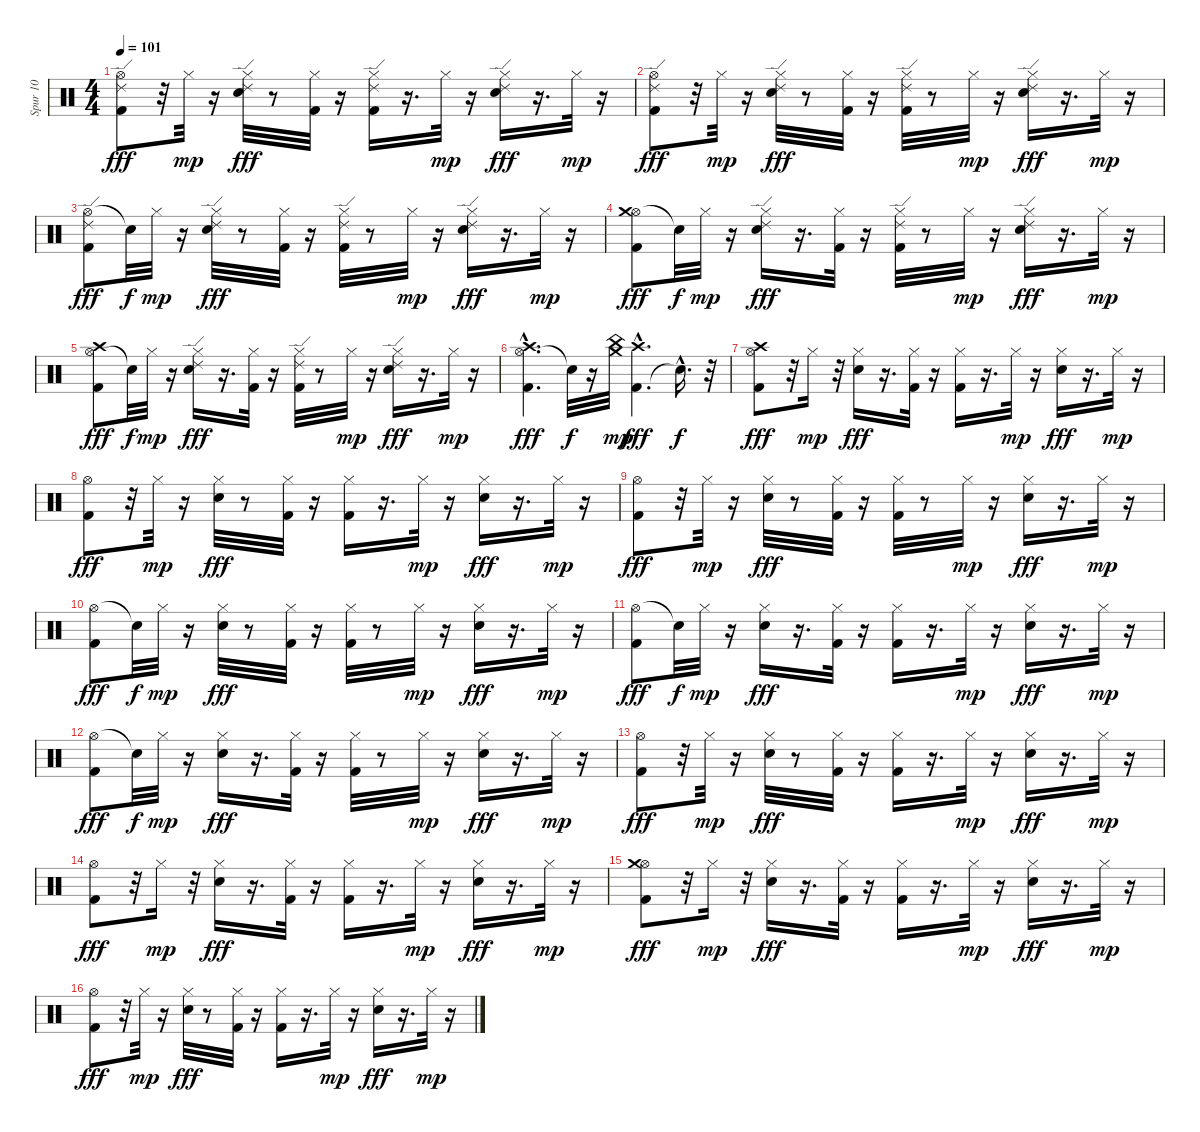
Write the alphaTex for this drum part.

\track ("Spur 10" "Spur 10") {instrument percussion}
\staff {score}
\articulation defaults
\ts (4 4)
\tempo 101
\clef neutral
\ks c
("Hi-Hat (open)" "Kick (hit) 2" "Ride (edge) 2").8{dy fff} r.32 "Hi-Hat (closed)".32{dy mp} r.16 ("Hi-Hat (closed)" "Snare (hit) 2" "Ride (edge) 2").32{dy fff} r.8 ("Hi-Hat (closed)" "Kick (hit) 2").32 r.16 ("Hi-Hat (closed)" "Kick (hit) 2" "Ride (edge) 2").16 r.16{d} "Hi-Hat (closed)".32{dy mp} r.16 ("Hi-Hat (closed)" "Snare (hit) 2" "Ride (edge) 2").16{dy fff} r.16{d} "Hi-Hat (closed)".32{dy mp} r.16 |
("Hi-Hat (open)" "Kick (hit) 2" "Ride (edge) 2").8{dy fff} r.32 "Hi-Hat (closed)".32{dy mp} r.16 ("Hi-Hat (closed)" "Snare (hit) 2" "Ride (edge) 2").32{dy fff} r.8 ("Hi-Hat (closed)" "Kick (hit) 2").32 r.16 ("Hi-Hat (closed)" "Kick (hit) 2" "Ride (edge) 2").32 r.8 "Hi-Hat (closed)".32{dy mp} r.16 ("Ride (edge) 2" "Hi-Hat (closed)" "Snare (hit) 2").16{dy fff} r.16{d} "Hi-Hat (closed)".32{dy mp} r.16 |
("Hi-Hat (open)" "Kick (hit) 2" "Ride (edge) 2").8{dy fff} "Snare (hit)"{t}.32{dy f} "Hi-Hat (closed)".32{dy mp} r.16 ("Ride (edge) 2" "Hi-Hat (closed)" "Snare (hit) 2").32{dy fff} r.8 ("Hi-Hat (closed)" "Kick (hit) 2").32 r.16 ("Hi-Hat (closed)" "Kick (hit) 2" "Ride (edge) 2").32 r.8 "Hi-Hat (closed)".32{dy mp} r.16 ("Hi-Hat (closed)" "Snare (hit) 2" "Ride (edge) 2").16{dy fff} r.16{d} "Hi-Hat (closed)".32{dy mp} r.16 |
("Hi-Hat (open)" "Kick (hit) 2" "Crash medium (hit)").8{dy fff} "Snare (hit)"{t}.32{dy f} "Hi-Hat (closed)".32{dy mp} r.16 ("Hi-Hat (closed)" "Snare (hit) 2" "Ride (edge) 2").16{dy fff} r.16{d} ("Hi-Hat (closed)" "Kick (hit) 2").32 r.16 ("Ride (edge) 2" "Hi-Hat (closed)" "Kick (hit) 2").32 r.8 "Hi-Hat (closed)".32{dy mp} r.16 ("Hi-Hat (closed)" "Snare (hit) 2" "Ride (edge) 2").16{dy fff} r.16{d} "Hi-Hat (closed)".32{dy mp} r.16 |
("Hi-Hat (open)" "Kick (hit) 2" "Crash high (hit)").8{dy fff} "Snare (hit)"{t}.32{dy f} "Hi-Hat (closed)".32{dy mp} r.16 ("Hi-Hat (closed)" "Snare (hit) 2" "Ride (edge) 2").16{dy fff} r.16{d} ("Hi-Hat (closed)" "Kick (hit) 2").32 r.16 ("Hi-Hat (closed)" "Kick (hit) 2" "Ride (edge) 2").32 r.8 "Hi-Hat (closed)".32{dy mp} r.16 ("Hi-Hat (closed)" "Snare (hit) 2" "Ride (edge) 2").16{dy fff} r.16{d} "Hi-Hat (closed)".32{dy mp} r.16 |
("Hi-Hat (open)"{hac} "Kick (hit) 2" "Crash high (hit)").4{d dy fff} "Snare (hit)"{t}.32{dy f} r.16 ("China (hit)" "Crash medium (hit)").32{dy mp} ("Kick (hit) 2" "Crash high (hit)"{hac}).4{d dy fff} "Snare (hit)"{hac t}.16{d dy f} r.32 |
("Hi-Hat (open)" "Kick (hit) 2" "Crash high (hit)").8{dy fff} r.32 "Hi-Hat (closed)".16{dy mp} r.32 ("Hi-Hat (closed)" "Snare (hit) 2").16{dy fff} r.16{d} ("Hi-Hat (closed)" "Kick (hit) 2").32 r.16 ("Hi-Hat (closed)" "Kick (hit) 2").16 r.16{d} "Hi-Hat (closed)".32{dy mp} r.16 ("Hi-Hat (closed)" "Snare (hit) 2").16{dy fff} r.16{d} "Hi-Hat (closed)".32{dy mp} r.16 |
("Hi-Hat (open)" "Kick (hit) 2").8{dy fff} r.32 "Hi-Hat (closed)".32{dy mp} r.16 ("Hi-Hat (closed)" "Snare (hit) 2").32{dy fff} r.8 ("Hi-Hat (closed)" "Kick (hit) 2").32 r.16 ("Hi-Hat (closed)" "Kick (hit) 2").16 r.16{d} "Hi-Hat (closed)".32{dy mp} r.16 ("Hi-Hat (closed)" "Snare (hit) 2").16{dy fff} r.16{d} "Hi-Hat (closed)".32{dy mp} r.16 |
("Hi-Hat (open)" "Kick (hit) 2").8{dy fff} r.32 "Hi-Hat (closed)".32{dy mp} r.16 ("Hi-Hat (closed)" "Snare (hit) 2").32{dy fff} r.8 ("Hi-Hat (closed)" "Kick (hit) 2").32 r.16 ("Hi-Hat (closed)" "Kick (hit) 2").32 r.8 "Hi-Hat (closed)".32{dy mp} r.16 ("Hi-Hat (closed)" "Snare (hit) 2").16{dy fff} r.16{d} "Hi-Hat (closed)".32{dy mp} r.16 |
("Hi-Hat (open)" "Kick (hit) 2").8{dy fff} "Snare (hit)"{t}.32{dy f} "Hi-Hat (closed)".32{dy mp} r.16 ("Hi-Hat (closed)" "Snare (hit) 2").32{dy fff} r.8 ("Hi-Hat (closed)" "Kick (hit) 2").32 r.16 ("Hi-Hat (closed)" "Kick (hit) 2").32 r.8 "Hi-Hat (closed)".32{dy mp} r.16 ("Hi-Hat (closed)" "Snare (hit) 2").16{dy fff} r.16{d} "Hi-Hat (closed)".32{dy mp} r.16 |
("Hi-Hat (open)" "Kick (hit) 2").8{dy fff} "Snare (hit)"{t}.32{dy f} "Hi-Hat (closed)".32{dy mp} r.16 ("Hi-Hat (closed)" "Snare (hit) 2").16{dy fff} r.16{d} ("Hi-Hat (closed)" "Kick (hit) 2").32 r.16 ("Hi-Hat (closed)" "Kick (hit) 2").16 r.16{d} "Hi-Hat (closed)".32{dy mp} r.16 ("Hi-Hat (closed)" "Snare (hit) 2").16{dy fff} r.16{d} "Hi-Hat (closed)".32{dy mp} r.16 |
("Hi-Hat (open)" "Kick (hit) 2").8{dy fff} "Snare (hit)"{t}.32{dy f} "Hi-Hat (closed)".32{dy mp} r.16 ("Hi-Hat (closed)" "Snare (hit) 2").16{dy fff} r.16{d} ("Hi-Hat (closed)" "Kick (hit) 2").32 r.16 ("Hi-Hat (closed)" "Kick (hit) 2").32 r.8 "Hi-Hat (closed)".32{dy mp} r.16 ("Hi-Hat (closed)" "Snare (hit) 2").16{dy fff} r.16{d} "Hi-Hat (closed)".32{dy mp} r.16 |
("Hi-Hat (open)" "Kick (hit) 2").8{dy fff} r.32 "Hi-Hat (closed)".32{dy mp} r.16 ("Hi-Hat (closed)" "Snare (hit) 2").32{dy fff} r.8 ("Hi-Hat (closed)" "Kick (hit) 2").32 r.16 ("Hi-Hat (closed)" "Kick (hit) 2").16 r.16{d} "Hi-Hat (closed)".32{dy mp} r.16 ("Hi-Hat (closed)" "Snare (hit) 2").16{dy fff} r.16{d} "Hi-Hat (closed)".32{dy mp} r.16 |
("Hi-Hat (open)" "Kick (hit) 2").8{dy fff} r.32 "Hi-Hat (closed)".16{dy mp} r.32 ("Hi-Hat (closed)" "Snare (hit) 2").16{dy fff} r.16{d} ("Hi-Hat (closed)" "Kick (hit) 2").32 r.16 ("Hi-Hat (closed)" "Kick (hit) 2").16 r.16{d} "Hi-Hat (closed)".32{dy mp} r.16 ("Hi-Hat (closed)" "Snare (hit) 2").16{dy fff} r.16{d} "Hi-Hat (closed)".32{dy mp} r.16 |
("Hi-Hat (open)" "Kick (hit) 2" "Crash medium (hit)").8{dy fff} r.32 "Hi-Hat (closed)".16{dy mp} r.32 ("Hi-Hat (closed)" "Snare (hit) 2").16{dy fff} r.16{d} ("Hi-Hat (closed)" "Kick (hit) 2").32 r.16 ("Hi-Hat (closed)" "Kick (hit) 2").16 r.16{d} "Hi-Hat (closed)".32{dy mp} r.16 ("Hi-Hat (closed)" "Snare (hit) 2").16{dy fff} r.16{d} "Hi-Hat (closed)".32{dy mp} r.16 |
("Hi-Hat (open)" "Kick (hit) 2").8{dy fff} r.32 "Hi-Hat (closed)".32{dy mp} r.16 ("Hi-Hat (closed)" "Snare (hit) 2").32{dy fff} r.8 ("Hi-Hat (closed)" "Kick (hit) 2").32 r.16 ("Hi-Hat (closed)" "Kick (hit) 2").16 r.16{d} "Hi-Hat (closed)".32{dy mp} r.16 ("Hi-Hat (closed)" "Snare (hit) 2").16{dy fff} r.16{d} "Hi-Hat (closed)".32{dy mp} r.16
